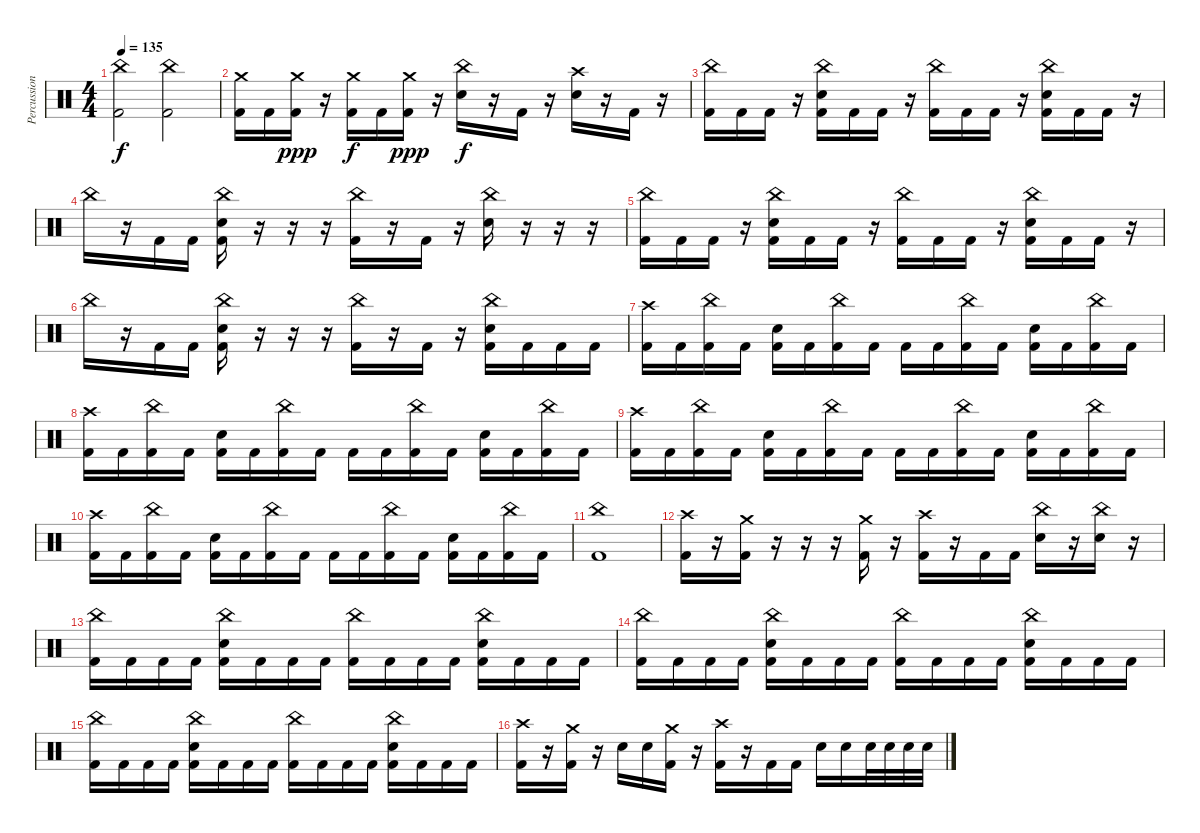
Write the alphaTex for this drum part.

\track ("Percussion" "Percussion") {instrument percussion}
\staff {score}
\articulation defaults
\ts (4 4)
\tempo 135
\clef neutral
\ks c
("China (hit)" "Kick (hit) 2").2{dy f} ("China (hit)" "Kick (hit) 2").2 |
("Crash medium (hit)" "Kick (hit) 2").16 "Kick (hit) 2".16 ("Crash medium (hit)" "Kick (hit) 2").16{dy ppp} r.16 ("Crash medium (hit)" "Kick (hit) 2").16{dy f} "Kick (hit) 2".16 ("Crash medium (hit)" "Kick (hit) 2").16{dy ppp} r.16 ("China (hit)" "Electric Snare (hit)").16{dy f} r.16 "Kick (hit) 2".16 r.16 ("Crash high (hit)" "Electric Snare (hit)").16 r.16 "Kick (hit) 2".16 r.16 |
("China (hit)" "Kick (hit) 2").16 "Kick (hit) 2".16 "Kick (hit) 2".16 r.16 ("China (hit)" "Electric Snare (hit)" "Kick (hit) 2").16 "Kick (hit) 2".16 "Kick (hit) 2".16 r.16 ("China (hit)" "Kick (hit) 2").16 "Kick (hit) 2".16 "Kick (hit) 2".16 r.16 ("China (hit)" "Electric Snare (hit)" "Kick (hit) 2").16 "Kick (hit) 2".16 "Kick (hit) 2".16 r.16 |
"China (hit)".16 r.16 "Kick (hit) 2".16 "Kick (hit) 2".16 ("China (hit)" "Electric Snare (hit)" "Kick (hit) 2").16 r.16 r.16 r.16 ("China (hit)" "Kick (hit) 2").16 r.16 "Kick (hit) 2".16 r.16 ("China (hit)" "Electric Snare (hit)").16 r.16 r.16 r.16 |
("China (hit)" "Kick (hit) 2").16 "Kick (hit) 2".16 "Kick (hit) 2".16 r.16 ("China (hit)" "Electric Snare (hit)" "Kick (hit) 2").16 "Kick (hit) 2".16 "Kick (hit) 2".16 r.16 ("China (hit)" "Kick (hit) 2").16 "Kick (hit) 2".16 "Kick (hit) 2".16 r.16 ("China (hit)" "Electric Snare (hit)" "Kick (hit) 2").16 "Kick (hit) 2".16 "Kick (hit) 2".16 r.16 |
"China (hit)".16 r.16 "Kick (hit) 2".16 "Kick (hit) 2".16 ("China (hit)" "Electric Snare (hit)" "Kick (hit) 2").16 r.16 r.16 r.16 ("China (hit)" "Kick (hit) 2").16 r.16 "Kick (hit) 2".16 r.16 ("China (hit)" "Electric Snare (hit)" "Kick (hit) 2").16 "Kick (hit) 2".16 "Kick (hit) 2".16 "Kick (hit) 2".16 |
("Crash high (hit)" "Kick (hit) 2").16 "Kick (hit) 2".16 ("China (hit)" "Kick (hit) 2").16 "Kick (hit) 2".16 ("Electric Snare (hit)" "Kick (hit) 2").16 "Kick (hit) 2".16 ("China (hit)" "Kick (hit) 2").16 "Kick (hit) 2".16 "Kick (hit) 2".16 "Kick (hit) 2".16 ("China (hit)" "Kick (hit) 2").16 "Kick (hit) 2".16 ("Electric Snare (hit)" "Kick (hit) 2").16 "Kick (hit) 2".16 ("China (hit)" "Kick (hit) 2").16 "Kick (hit) 2".16 |
("Crash high (hit)" "Kick (hit) 2").16 "Kick (hit) 2".16 ("China (hit)" "Kick (hit) 2").16 "Kick (hit) 2".16 ("Electric Snare (hit)" "Kick (hit) 2").16 "Kick (hit) 2".16 ("China (hit)" "Kick (hit) 2").16 "Kick (hit) 2".16 "Kick (hit) 2".16 "Kick (hit) 2".16 ("China (hit)" "Kick (hit) 2").16 "Kick (hit) 2".16 ("Electric Snare (hit)" "Kick (hit) 2").16 "Kick (hit) 2".16 ("China (hit)" "Kick (hit) 2").16 "Kick (hit) 2".16 |
("Crash high (hit)" "Kick (hit) 2").16 "Kick (hit) 2".16 ("China (hit)" "Kick (hit) 2").16 "Kick (hit) 2".16 ("Electric Snare (hit)" "Kick (hit) 2").16 "Kick (hit) 2".16 ("China (hit)" "Kick (hit) 2").16 "Kick (hit) 2".16 "Kick (hit) 2".16 "Kick (hit) 2".16 ("China (hit)" "Kick (hit) 2").16 "Kick (hit) 2".16 ("Electric Snare (hit)" "Kick (hit) 2").16 "Kick (hit) 2".16 ("China (hit)" "Kick (hit) 2").16 "Kick (hit) 2".16 |
("Crash high (hit)" "Kick (hit) 2").16 "Kick (hit) 2".16 ("China (hit)" "Kick (hit) 2").16 "Kick (hit) 2".16 ("Electric Snare (hit)" "Kick (hit) 2").16 "Kick (hit) 2".16 ("China (hit)" "Kick (hit) 2").16 "Kick (hit) 2".16 "Kick (hit) 2".16 "Kick (hit) 2".16 ("China (hit)" "Kick (hit) 2").16 "Kick (hit) 2".16 ("Electric Snare (hit)" "Kick (hit) 2").16 "Kick (hit) 2".16 ("China (hit)" "Kick (hit) 2").16 "Kick (hit) 2".16 |
("China (hit)" "Kick (hit) 2").1 |
("Crash high (hit)" "Kick (hit) 2").16 r.16 ("Crash medium (hit)" "Kick (hit) 2").16 r.16 r.16 r.16 ("Crash medium (hit)" "Kick (hit) 2").16 r.16 ("Crash high (hit)" "Kick (hit) 2").16 r.16 "Kick (hit) 2".16 "Kick (hit) 2".16 ("China (hit)" "Electric Snare (hit)").16 r.16 ("China (hit)" "Electric Snare (hit)").16 r.16 |
("China (hit)" "Kick (hit) 2").16 "Kick (hit) 2".16 "Kick (hit) 2".16 "Kick (hit) 2".16 ("China (hit)" "Electric Snare (hit)" "Kick (hit) 2").16 "Kick (hit) 2".16 "Kick (hit) 2".16 "Kick (hit) 2".16 ("China (hit)" "Kick (hit) 2").16 "Kick (hit) 2".16 "Kick (hit) 2".16 "Kick (hit) 2".16 ("China (hit)" "Electric Snare (hit)" "Kick (hit) 2").16 "Kick (hit) 2".16 "Kick (hit) 2".16 "Kick (hit) 2".16 |
("China (hit)" "Kick (hit) 2").16 "Kick (hit) 2".16 "Kick (hit) 2".16 "Kick (hit) 2".16 ("China (hit)" "Electric Snare (hit)" "Kick (hit) 2").16 "Kick (hit) 2".16 "Kick (hit) 2".16 "Kick (hit) 2".16 ("China (hit)" "Kick (hit) 2").16 "Kick (hit) 2".16 "Kick (hit) 2".16 "Kick (hit) 2".16 ("China (hit)" "Electric Snare (hit)" "Kick (hit) 2").16 "Kick (hit) 2".16 "Kick (hit) 2".16 "Kick (hit) 2".16 |
("China (hit)" "Kick (hit) 2").16 "Kick (hit) 2".16 "Kick (hit) 2".16 "Kick (hit) 2".16 ("China (hit)" "Electric Snare (hit)" "Kick (hit) 2").16 "Kick (hit) 2".16 "Kick (hit) 2".16 "Kick (hit) 2".16 ("China (hit)" "Kick (hit) 2").16 "Kick (hit) 2".16 "Kick (hit) 2".16 "Kick (hit) 2".16 ("China (hit)" "Electric Snare (hit)" "Kick (hit) 2").16 "Kick (hit) 2".16 "Kick (hit) 2".16 "Kick (hit) 2".16 |
("Crash high (hit)" "Kick (hit) 2").16 r.16 ("Crash medium (hit)" "Kick (hit) 2").16 r.16 "Electric Snare (hit)".16 "Electric Snare (hit)".16 ("Crash medium (hit)" "Kick (hit) 2").16 r.16 ("Crash high (hit)" "Kick (hit) 2").16 r.16 "Kick (hit) 2".16 "Kick (hit) 2".16 "Electric Snare (hit)".16 "Electric Snare (hit)".16 "Electric Snare (hit)".32 "Electric Snare (hit)".32 "Electric Snare (hit)".32 "Electric Snare (hit)".32
